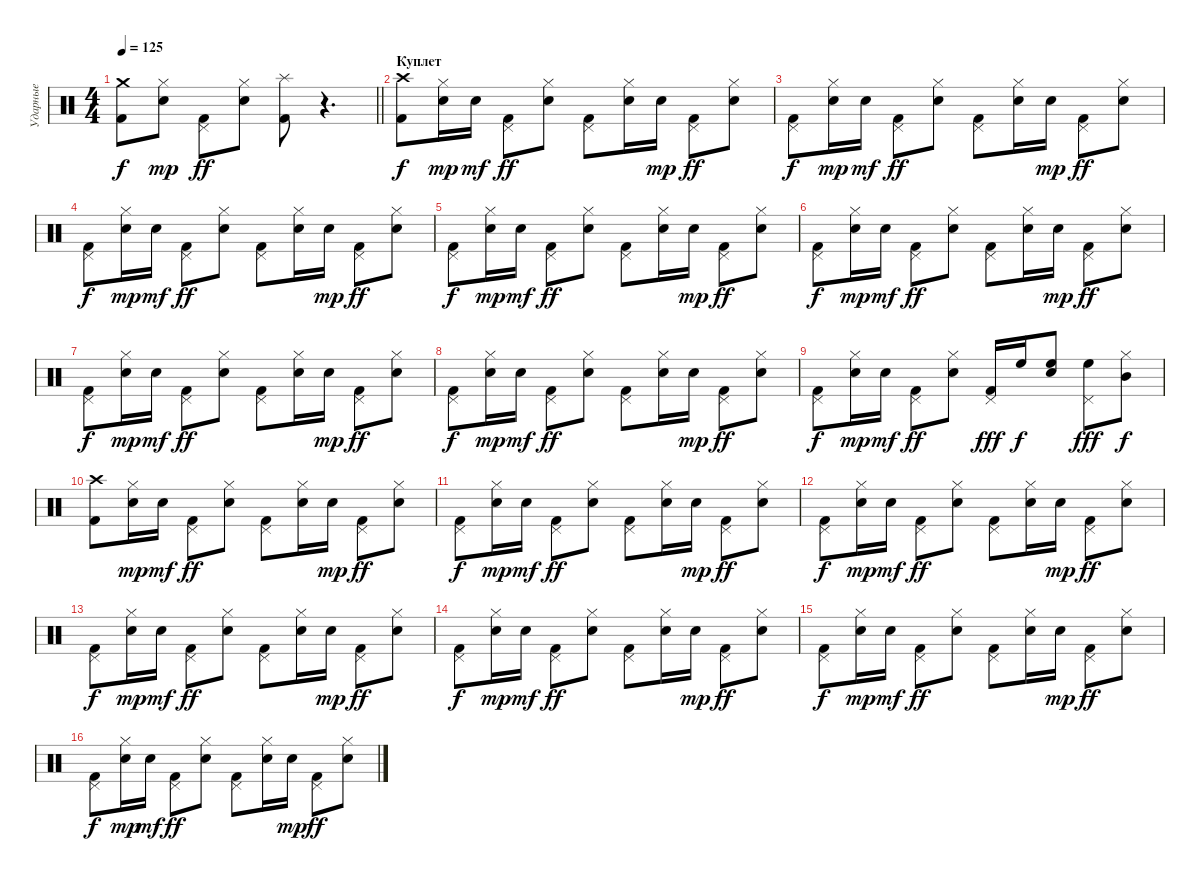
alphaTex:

\track ("Ударные" "Ударные") {instrument percussion}
\staff {score}
\articulation defaults
\ts (4 4)
\tempo 125
\clef neutral
\barLineRight lightlight
\ks c
("Crash medium (hit)" "Kick (hit) 2").8{dy f} ("Hi-Hat (closed)" "Electric Snare (hit)").8{dy mp} ("Pedal Hi-Hat (hit)" "Kick (hit) 2").8{dy ff} ("Hi-Hat (closed)" "Electric Snare (hit)").8 ("Splash (hit)" "Kick (hit) 2").8 r.4{d} |
\section ("" "Куплет")
("Crash high (hit)" "Kick (hit) 2").8{dy f} ("Hi-Hat (closed)" "Electric Snare (hit)").16{dy mp} "Electric Snare (hit)".16{dy mf} ("Pedal Hi-Hat (hit)" "Kick (hit) 2").8{dy ff} ("Hi-Hat (closed)" "Electric Snare (hit)").8 ("Pedal Hi-Hat (hit)" "Kick (hit) 2").8 ("Hi-Hat (closed)" "Electric Snare (hit)").16 "Electric Snare (hit)".16{dy mp} ("Pedal Hi-Hat (hit)" "Kick (hit) 2").8{dy ff} ("Hi-Hat (closed)" "Electric Snare (hit)").8 |
("Pedal Hi-Hat (hit)" "Kick (hit) 2").8{dy f} ("Hi-Hat (closed)" "Electric Snare (hit)").16{dy mp} "Electric Snare (hit)".16{dy mf} ("Pedal Hi-Hat (hit)" "Kick (hit) 2").8{dy ff} ("Hi-Hat (closed)" "Electric Snare (hit)").8 ("Pedal Hi-Hat (hit)" "Kick (hit) 2").8 ("Hi-Hat (closed)" "Electric Snare (hit)").16 "Electric Snare (hit)".16{dy mp} ("Pedal Hi-Hat (hit)" "Kick (hit) 2").8{dy ff} ("Hi-Hat (closed)" "Electric Snare (hit)").8 |
("Pedal Hi-Hat (hit)" "Kick (hit) 2").8{dy f} ("Hi-Hat (closed)" "Electric Snare (hit)").16{dy mp} "Electric Snare (hit)".16{dy mf} ("Pedal Hi-Hat (hit)" "Kick (hit) 2").8{dy ff} ("Hi-Hat (closed)" "Electric Snare (hit)").8 ("Pedal Hi-Hat (hit)" "Kick (hit) 2").8 ("Hi-Hat (closed)" "Electric Snare (hit)").16 "Electric Snare (hit)".16{dy mp} ("Pedal Hi-Hat (hit)" "Kick (hit) 2").8{dy ff} ("Hi-Hat (closed)" "Electric Snare (hit)").8 |
("Pedal Hi-Hat (hit)" "Kick (hit) 2").8{dy f} ("Hi-Hat (closed)" "Electric Snare (hit)").16{dy mp} "Electric Snare (hit)".16{dy mf} ("Pedal Hi-Hat (hit)" "Kick (hit) 2").8{dy ff} ("Hi-Hat (closed)" "Electric Snare (hit)").8 ("Pedal Hi-Hat (hit)" "Kick (hit) 2").8 ("Hi-Hat (closed)" "Electric Snare (hit)").16 "Electric Snare (hit)".16{dy mp} ("Pedal Hi-Hat (hit)" "Kick (hit) 2").8{dy ff} ("Hi-Hat (closed)" "Electric Snare (hit)").8 |
("Pedal Hi-Hat (hit)" "Kick (hit) 2").8{dy f} ("Hi-Hat (closed)" "Electric Snare (hit)").16{dy mp} "Electric Snare (hit)".16{dy mf} ("Pedal Hi-Hat (hit)" "Kick (hit) 2").8{dy ff} ("Hi-Hat (closed)" "Electric Snare (hit)").8 ("Pedal Hi-Hat (hit)" "Kick (hit) 2").8 ("Hi-Hat (closed)" "Electric Snare (hit)").16 "Electric Snare (hit)".16{dy mp} ("Pedal Hi-Hat (hit)" "Kick (hit) 2").8{dy ff} ("Hi-Hat (closed)" "Electric Snare (hit)").8 |
("Pedal Hi-Hat (hit)" "Kick (hit) 2").8{dy f} ("Hi-Hat (closed)" "Electric Snare (hit)").16{dy mp} "Electric Snare (hit)".16{dy mf} ("Pedal Hi-Hat (hit)" "Kick (hit) 2").8{dy ff} ("Hi-Hat (closed)" "Electric Snare (hit)").8 ("Pedal Hi-Hat (hit)" "Kick (hit) 2").8 ("Hi-Hat (closed)" "Electric Snare (hit)").16 "Electric Snare (hit)".16{dy mp} ("Pedal Hi-Hat (hit)" "Kick (hit) 2").8{dy ff} ("Hi-Hat (closed)" "Electric Snare (hit)").8 |
("Pedal Hi-Hat (hit)" "Kick (hit) 2").8{dy f} ("Hi-Hat (closed)" "Electric Snare (hit)").16{dy mp} "Electric Snare (hit)".16{dy mf} ("Pedal Hi-Hat (hit)" "Kick (hit) 2").8{dy ff} ("Hi-Hat (closed)" "Electric Snare (hit)").8 ("Pedal Hi-Hat (hit)" "Kick (hit) 2").8 ("Hi-Hat (closed)" "Electric Snare (hit)").16 "Electric Snare (hit)".16{dy mp} ("Pedal Hi-Hat (hit)" "Kick (hit) 2").8{dy ff} ("Hi-Hat (closed)" "Electric Snare (hit)").8 |
("Pedal Hi-Hat (hit)" "Kick (hit) 2").8{dy f} ("Hi-Hat (closed)" "Electric Snare (hit)").16{dy mp} "Electric Snare (hit)".16{dy mf} ("Pedal Hi-Hat (hit)" "Kick (hit) 2").8{dy ff} ("Hi-Hat (closed)" "Electric Snare (hit)").8 ("Pedal Hi-Hat (hit)" "Kick (hit) 2").16{dy fff} "High Floor Tom (hit)".16{dy f} ("Electric Snare (hit)" "High Floor Tom (hit)").8 ("Pedal Hi-Hat (hit)" "High Floor Tom (hit)").8{dy fff} ("Hi-Hat (closed)" "Mid Tom (hit)").8{dy f} |
("Crash high (hit)" "Kick (hit) 2").8 ("Hi-Hat (closed)" "Electric Snare (hit)").16{dy mp} "Electric Snare (hit)".16{dy mf} ("Pedal Hi-Hat (hit)" "Kick (hit) 2").8{dy ff} ("Hi-Hat (closed)" "Electric Snare (hit)").8 ("Pedal Hi-Hat (hit)" "Kick (hit) 2").8 ("Hi-Hat (closed)" "Electric Snare (hit)").16 "Electric Snare (hit)".16{dy mp} ("Pedal Hi-Hat (hit)" "Kick (hit) 2").8{dy ff} ("Hi-Hat (closed)" "Electric Snare (hit)").8 |
("Pedal Hi-Hat (hit)" "Kick (hit) 2").8{dy f} ("Hi-Hat (closed)" "Electric Snare (hit)").16{dy mp} "Electric Snare (hit)".16{dy mf} ("Pedal Hi-Hat (hit)" "Kick (hit) 2").8{dy ff} ("Hi-Hat (closed)" "Electric Snare (hit)").8 ("Pedal Hi-Hat (hit)" "Kick (hit) 2").8 ("Hi-Hat (closed)" "Electric Snare (hit)").16 "Electric Snare (hit)".16{dy mp} ("Pedal Hi-Hat (hit)" "Kick (hit) 2").8{dy ff} ("Hi-Hat (closed)" "Electric Snare (hit)").8 |
("Pedal Hi-Hat (hit)" "Kick (hit) 2").8{dy f} ("Hi-Hat (closed)" "Electric Snare (hit)").16{dy mp} "Electric Snare (hit)".16{dy mf} ("Pedal Hi-Hat (hit)" "Kick (hit) 2").8{dy ff} ("Hi-Hat (closed)" "Electric Snare (hit)").8 ("Pedal Hi-Hat (hit)" "Kick (hit) 2").8 ("Hi-Hat (closed)" "Electric Snare (hit)").16 "Electric Snare (hit)".16{dy mp} ("Pedal Hi-Hat (hit)" "Kick (hit) 2").8{dy ff} ("Hi-Hat (closed)" "Electric Snare (hit)").8 |
("Pedal Hi-Hat (hit)" "Kick (hit) 2").8{dy f} ("Hi-Hat (closed)" "Electric Snare (hit)").16{dy mp} "Electric Snare (hit)".16{dy mf} ("Pedal Hi-Hat (hit)" "Kick (hit) 2").8{dy ff} ("Hi-Hat (closed)" "Electric Snare (hit)").8 ("Pedal Hi-Hat (hit)" "Kick (hit) 2").8 ("Hi-Hat (closed)" "Electric Snare (hit)").16 "Electric Snare (hit)".16{dy mp} ("Pedal Hi-Hat (hit)" "Kick (hit) 2").8{dy ff} ("Hi-Hat (closed)" "Electric Snare (hit)").8 |
("Pedal Hi-Hat (hit)" "Kick (hit) 2").8{dy f} ("Hi-Hat (closed)" "Electric Snare (hit)").16{dy mp} "Electric Snare (hit)".16{dy mf} ("Pedal Hi-Hat (hit)" "Kick (hit) 2").8{dy ff} ("Hi-Hat (closed)" "Electric Snare (hit)").8 ("Pedal Hi-Hat (hit)" "Kick (hit) 2").8 ("Hi-Hat (closed)" "Electric Snare (hit)").16 "Electric Snare (hit)".16{dy mp} ("Pedal Hi-Hat (hit)" "Kick (hit) 2").8{dy ff} ("Hi-Hat (closed)" "Electric Snare (hit)").8 |
("Pedal Hi-Hat (hit)" "Kick (hit) 2").8{dy f} ("Hi-Hat (closed)" "Electric Snare (hit)").16{dy mp} "Electric Snare (hit)".16{dy mf} ("Pedal Hi-Hat (hit)" "Kick (hit) 2").8{dy ff} ("Hi-Hat (closed)" "Electric Snare (hit)").8 ("Pedal Hi-Hat (hit)" "Kick (hit) 2").8 ("Hi-Hat (closed)" "Electric Snare (hit)").16 "Electric Snare (hit)".16{dy mp} ("Pedal Hi-Hat (hit)" "Kick (hit) 2").8{dy ff} ("Hi-Hat (closed)" "Electric Snare (hit)").8 |
("Pedal Hi-Hat (hit)" "Kick (hit) 2").8{dy f} ("Hi-Hat (closed)" "Electric Snare (hit)").16{dy mp} "Electric Snare (hit)".16{dy mf} ("Pedal Hi-Hat (hit)" "Kick (hit) 2").8{dy ff} ("Hi-Hat (closed)" "Electric Snare (hit)").8 ("Pedal Hi-Hat (hit)" "Kick (hit) 2").8 ("Hi-Hat (closed)" "Electric Snare (hit)").16 "Electric Snare (hit)".16{dy mp} ("Pedal Hi-Hat (hit)" "Kick (hit) 2").8{dy ff} ("Hi-Hat (closed)" "Electric Snare (hit)").8
